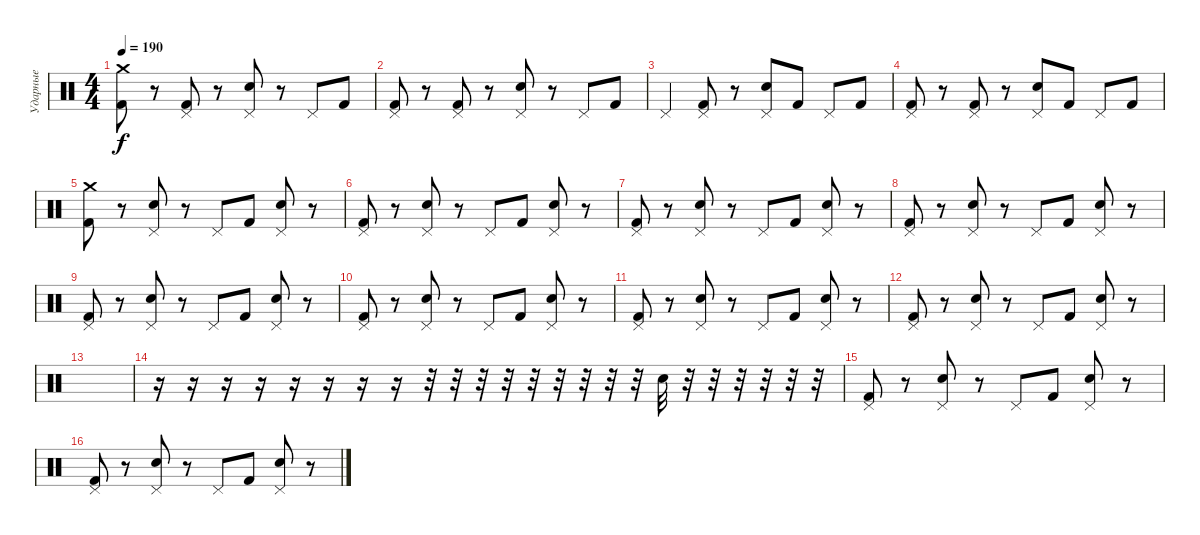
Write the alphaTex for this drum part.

\track ("Ударные" "Ударные") {instrument percussion}
\staff {score}
\articulation defaults
\ts (4 4)
\tempo 190
\clef neutral
\ks c
("Crash medium (hit)" "Kick (hit) 2").8{dy f} r.8 ("Pedal Hi-Hat (hit)" "Kick (hit) 2").8 r.8 ("Pedal Hi-Hat (hit)" "Electric Snare (hit)").8 r.8 "Pedal Hi-Hat (hit)".8 "Kick (hit) 2".8 |
("Pedal Hi-Hat (hit)" "Kick (hit) 2").8 r.8 ("Pedal Hi-Hat (hit)" "Kick (hit) 2").8 r.8 ("Pedal Hi-Hat (hit)" "Electric Snare (hit)").8 r.8 "Pedal Hi-Hat (hit)".8 "Kick (hit) 2".8 |
"Pedal Hi-Hat (hit)".4 ("Pedal Hi-Hat (hit)" "Kick (hit) 2").8 r.8 ("Pedal Hi-Hat (hit)" "Electric Snare (hit)").8 "Kick (hit) 2".8 "Pedal Hi-Hat (hit)".8 "Kick (hit) 2".8 |
("Pedal Hi-Hat (hit)" "Kick (hit) 2").8 r.8 ("Pedal Hi-Hat (hit)" "Kick (hit) 2").8 r.8 ("Pedal Hi-Hat (hit)" "Electric Snare (hit)").8 "Kick (hit) 2".8 "Pedal Hi-Hat (hit)".8 "Kick (hit) 2".8 |
("Crash medium (hit)" "Kick (hit) 2").8 r.8 ("Pedal Hi-Hat (hit)" "Electric Snare (hit)").8 r.8 "Pedal Hi-Hat (hit)".8 "Kick (hit) 2".8 ("Pedal Hi-Hat (hit)" "Electric Snare (hit)").8 r.8 |
("Pedal Hi-Hat (hit)" "Kick (hit) 2").8 r.8 ("Pedal Hi-Hat (hit)" "Electric Snare (hit)").8 r.8 "Pedal Hi-Hat (hit)".8 "Kick (hit) 2".8 ("Pedal Hi-Hat (hit)" "Electric Snare (hit)").8 r.8 |
("Pedal Hi-Hat (hit)" "Kick (hit) 2").8 r.8 ("Pedal Hi-Hat (hit)" "Electric Snare (hit)").8 r.8 "Pedal Hi-Hat (hit)".8 "Kick (hit) 2".8 ("Pedal Hi-Hat (hit)" "Electric Snare (hit)").8 r.8 |
("Pedal Hi-Hat (hit)" "Kick (hit) 2").8 r.8 ("Pedal Hi-Hat (hit)" "Electric Snare (hit)").8 r.8 "Pedal Hi-Hat (hit)".8 "Kick (hit) 2".8 ("Pedal Hi-Hat (hit)" "Electric Snare (hit)").8 r.8 |
("Pedal Hi-Hat (hit)" "Kick (hit) 2").8 r.8 ("Pedal Hi-Hat (hit)" "Electric Snare (hit)").8 r.8 "Pedal Hi-Hat (hit)".8 "Kick (hit) 2".8 ("Pedal Hi-Hat (hit)" "Electric Snare (hit)").8 r.8 |
("Pedal Hi-Hat (hit)" "Kick (hit) 2").8 r.8 ("Pedal Hi-Hat (hit)" "Electric Snare (hit)").8 r.8 "Pedal Hi-Hat (hit)".8 "Kick (hit) 2".8 ("Pedal Hi-Hat (hit)" "Electric Snare (hit)").8 r.8 |
("Pedal Hi-Hat (hit)" "Kick (hit) 2").8 r.8 ("Pedal Hi-Hat (hit)" "Electric Snare (hit)").8 r.8 "Pedal Hi-Hat (hit)".8 "Kick (hit) 2".8 ("Pedal Hi-Hat (hit)" "Electric Snare (hit)").8 r.8 |
("Pedal Hi-Hat (hit)" "Kick (hit) 2").8 r.8 ("Pedal Hi-Hat (hit)" "Electric Snare (hit)").8 r.8 "Pedal Hi-Hat (hit)".8 "Kick (hit) 2".8 ("Pedal Hi-Hat (hit)" "Electric Snare (hit)").8 r.8 |
|
r.16 r.16 r.16 r.16 r.16 r.16 r.16 r.16 r.32 r.32 r.32 r.32 r.32 r.32 r.32 r.32 r.32 "Electric Snare (hit)".32 r.32 r.32 r.32 r.32 r.32 r.32 |
("Pedal Hi-Hat (hit)" "Kick (hit) 2").8 r.8 ("Pedal Hi-Hat (hit)" "Electric Snare (hit)").8 r.8 "Pedal Hi-Hat (hit)".8 "Kick (hit) 2".8 ("Pedal Hi-Hat (hit)" "Electric Snare (hit)").8 r.8 |
("Pedal Hi-Hat (hit)" "Kick (hit) 2").8 r.8 ("Pedal Hi-Hat (hit)" "Electric Snare (hit)").8 r.8 "Pedal Hi-Hat (hit)".8 "Kick (hit) 2".8 ("Pedal Hi-Hat (hit)" "Electric Snare (hit)").8 r.8
